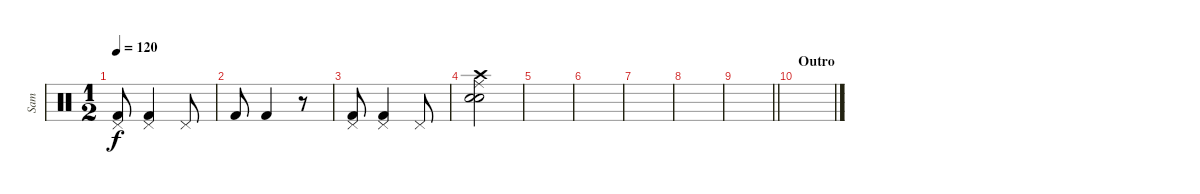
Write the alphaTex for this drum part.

\track ("Sam" "Sam") {instrument percussion}
\staff {score}
\articulation defaults
\ts (1 2)
\tempo 120
\clef neutral
\ks c
("Pedal Hi-Hat (hit)" "Kick (hit) 2").8{dy f} ("Pedal Hi-Hat (hit)" "Kick (hit) 2").4 "Pedal Hi-Hat (hit)".8 |
"Kick (hit) 2".8 "Kick (hit) 2".4 r.8 |
("Pedal Hi-Hat (hit)" "Kick (hit) 2").8 ("Pedal Hi-Hat (hit)" "Kick (hit) 2").4 "Pedal Hi-Hat (hit)".8 |
("Crash high (hit)" "Ride (middle)" "Snare (hit) 2" "Electric Snare (hit)").2 |
|
|
|
|
\barLineRight lightlight
|
\section ("" "Outro")
